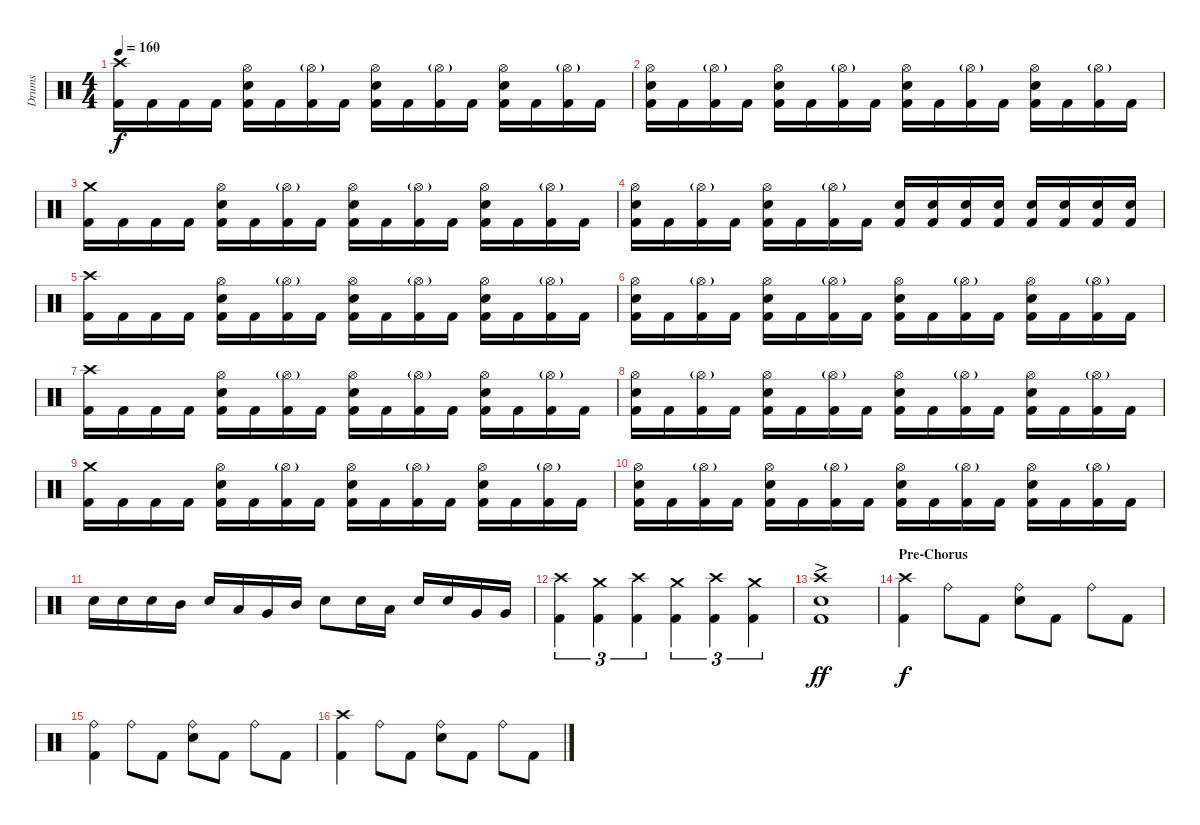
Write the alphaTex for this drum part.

\track ("Drums" "Drums") {instrument percussion}
\staff {score}
\articulation defaults
\ts (4 4)
\tempo 160
\clef neutral
\ks c
("Crash high (hit)" "Kick (hit) 2").16{dy f} "Kick (hit) 2".16 "Kick (hit) 2".16 "Kick (hit) 2".16 ("Hi-Hat (open)" "Snare (hit) 2" "Kick (hit) 2").16 "Kick (hit) 2".16 ("Hi-Hat (open)"{g} "Kick (hit) 2").16 "Kick (hit) 2".16 ("Hi-Hat (open)" "Snare (hit) 2" "Kick (hit) 2").16 "Kick (hit) 2".16 ("Hi-Hat (open)"{g} "Kick (hit) 2").16 "Kick (hit) 2".16 ("Hi-Hat (open)" "Snare (hit) 2" "Kick (hit) 2").16 "Kick (hit) 2".16 ("Hi-Hat (open)"{g} "Kick (hit) 2").16 "Kick (hit) 2".16 |
("Hi-Hat (open)" "Snare (hit) 2" "Kick (hit) 2").16 "Kick (hit) 2".16 ("Hi-Hat (open)"{g} "Kick (hit) 2").16 "Kick (hit) 2".16 ("Hi-Hat (open)" "Snare (hit) 2" "Kick (hit) 2").16 "Kick (hit) 2".16 ("Hi-Hat (open)"{g} "Kick (hit) 2").16 "Kick (hit) 2".16 ("Hi-Hat (open)" "Snare (hit) 2" "Kick (hit) 2").16 "Kick (hit) 2".16 ("Hi-Hat (open)"{g} "Kick (hit) 2").16 "Kick (hit) 2".16 ("Hi-Hat (open)" "Snare (hit) 2" "Kick (hit) 2").16 "Kick (hit) 2".16 ("Hi-Hat (open)"{g} "Kick (hit) 2").16 "Kick (hit) 2".16 |
("Crash medium (hit)" "Kick (hit) 2").16 "Kick (hit) 2".16 "Kick (hit) 2".16 "Kick (hit) 2".16 ("Hi-Hat (open)" "Snare (hit) 2" "Kick (hit) 2").16 "Kick (hit) 2".16 ("Hi-Hat (open)"{g} "Kick (hit) 2").16 "Kick (hit) 2".16 ("Hi-Hat (open)" "Snare (hit) 2" "Kick (hit) 2").16 "Kick (hit) 2".16 ("Hi-Hat (open)"{g} "Kick (hit) 2").16 "Kick (hit) 2".16 ("Hi-Hat (open)" "Snare (hit) 2" "Kick (hit) 2").16 "Kick (hit) 2".16 ("Hi-Hat (open)"{g} "Kick (hit) 2").16 "Kick (hit) 2".16 |
("Hi-Hat (open)" "Snare (hit) 2" "Kick (hit) 2").16 "Kick (hit) 2".16 ("Hi-Hat (open)"{g} "Kick (hit) 2").16 "Kick (hit) 2".16 ("Hi-Hat (open)" "Snare (hit) 2" "Kick (hit) 2").16 "Kick (hit) 2".16 ("Hi-Hat (open)"{g} "Kick (hit) 2").16 "Kick (hit) 2".16 ("Snare (hit) 2" "Kick (hit) 2").16 ("Snare (hit) 2" "Kick (hit) 2").16 ("Snare (hit) 2" "Kick (hit) 2").16 ("Snare (hit) 2" "Kick (hit) 2").16 ("Snare (hit) 2" "Kick (hit) 2").16 ("Snare (hit) 2" "Kick (hit) 2").16 ("Snare (hit) 2" "Kick (hit) 2").16 ("Snare (hit) 2" "Kick (hit) 2").16 |
("Crash high (hit)" "Kick (hit) 2").16 "Kick (hit) 2".16 "Kick (hit) 2".16 "Kick (hit) 2".16 ("Hi-Hat (open)" "Snare (hit) 2" "Kick (hit) 2").16 "Kick (hit) 2".16 ("Hi-Hat (open)"{g} "Kick (hit) 2").16 "Kick (hit) 2".16 ("Hi-Hat (open)" "Snare (hit) 2" "Kick (hit) 2").16 "Kick (hit) 2".16 ("Hi-Hat (open)"{g} "Kick (hit) 2").16 "Kick (hit) 2".16 ("Hi-Hat (open)" "Snare (hit) 2" "Kick (hit) 2").16 "Kick (hit) 2".16 ("Hi-Hat (open)"{g} "Kick (hit) 2").16 "Kick (hit) 2".16 |
("Hi-Hat (open)" "Snare (hit) 2" "Kick (hit) 2").16 "Kick (hit) 2".16 ("Hi-Hat (open)"{g} "Kick (hit) 2").16 "Kick (hit) 2".16 ("Hi-Hat (open)" "Snare (hit) 2" "Kick (hit) 2").16 "Kick (hit) 2".16 ("Hi-Hat (open)"{g} "Kick (hit) 2").16 "Kick (hit) 2".16 ("Hi-Hat (open)" "Snare (hit) 2" "Kick (hit) 2").16 "Kick (hit) 2".16 ("Hi-Hat (open)"{g} "Kick (hit) 2").16 "Kick (hit) 2".16 ("Hi-Hat (open)" "Snare (hit) 2" "Kick (hit) 2").16 "Kick (hit) 2".16 ("Hi-Hat (open)"{g} "Kick (hit) 2").16 "Kick (hit) 2".16 |
("Crash high (hit)" "Kick (hit) 2").16 "Kick (hit) 2".16 "Kick (hit) 2".16 "Kick (hit) 2".16 ("Hi-Hat (open)" "Snare (hit) 2" "Kick (hit) 2").16 "Kick (hit) 2".16 ("Hi-Hat (open)"{g} "Kick (hit) 2").16 "Kick (hit) 2".16 ("Hi-Hat (open)" "Snare (hit) 2" "Kick (hit) 2").16 "Kick (hit) 2".16 ("Hi-Hat (open)"{g} "Kick (hit) 2").16 "Kick (hit) 2".16 ("Hi-Hat (open)" "Snare (hit) 2" "Kick (hit) 2").16 "Kick (hit) 2".16 ("Hi-Hat (open)"{g} "Kick (hit) 2").16 "Kick (hit) 2".16 |
("Hi-Hat (open)" "Snare (hit) 2" "Kick (hit) 2").16 "Kick (hit) 2".16 ("Hi-Hat (open)"{g} "Kick (hit) 2").16 "Kick (hit) 2".16 ("Hi-Hat (open)" "Snare (hit) 2" "Kick (hit) 2").16 "Kick (hit) 2".16 ("Hi-Hat (open)"{g} "Kick (hit) 2").16 "Kick (hit) 2".16 ("Hi-Hat (open)" "Snare (hit) 2" "Kick (hit) 2").16 "Kick (hit) 2".16 ("Hi-Hat (open)"{g} "Kick (hit) 2").16 "Kick (hit) 2".16 ("Hi-Hat (open)" "Snare (hit) 2" "Kick (hit) 2").16 "Kick (hit) 2".16 ("Hi-Hat (open)"{g} "Kick (hit) 2").16 "Kick (hit) 2".16 |
("Crash medium (hit)" "Kick (hit) 2").16 "Kick (hit) 2".16 "Kick (hit) 2".16 "Kick (hit) 2".16 ("Hi-Hat (open)" "Snare (hit) 2" "Kick (hit) 2").16 "Kick (hit) 2".16 ("Hi-Hat (open)"{g} "Kick (hit) 2").16 "Kick (hit) 2".16 ("Hi-Hat (open)" "Snare (hit) 2" "Kick (hit) 2").16 "Kick (hit) 2".16 ("Hi-Hat (open)"{g} "Kick (hit) 2").16 "Kick (hit) 2".16 ("Hi-Hat (open)" "Snare (hit) 2" "Kick (hit) 2").16 "Kick (hit) 2".16 ("Hi-Hat (open)"{g} "Kick (hit) 2").16 "Kick (hit) 2".16 |
("Hi-Hat (open)" "Snare (hit) 2" "Kick (hit) 2").16 "Kick (hit) 2".16 ("Hi-Hat (open)"{g} "Kick (hit) 2").16 "Kick (hit) 2".16 ("Hi-Hat (open)" "Snare (hit) 2" "Kick (hit) 2").16 "Kick (hit) 2".16 ("Hi-Hat (open)"{g} "Kick (hit) 2").16 "Kick (hit) 2".16 ("Hi-Hat (open)" "Snare (hit) 2" "Kick (hit) 2").16 "Kick (hit) 2".16 ("Hi-Hat (open)"{g} "Kick (hit) 2").16 "Kick (hit) 2".16 ("Hi-Hat (open)" "Snare (hit) 2" "Kick (hit) 2").16 "Kick (hit) 2".16 ("Hi-Hat (open)"{g} "Kick (hit) 2").16 "Kick (hit) 2".16 |
"Snare (hit) 2".16 "Snare (hit) 2".16 "Snare (hit) 2".16 "Mid Tom (hit)".16 "Snare (hit) 2".16 "Low Tom (hit)".16 "Very Low Tom (hit)".16 "Mid Tom (hit)".16 "Snare (hit) 2".8 "Snare (hit) 2".16 "Low Tom (hit)".16 "Snare (hit) 2".16 "Snare (hit) 2".16 "Very Low Tom (hit)".16 "Very Low Tom (hit)".16 |
("Crash high (hit)" "Kick (hit) 2").4{tu (3 2)} ("Crash medium (hit)" "Kick (hit) 2").4{tu (3 2)} ("Crash high (hit)" "Kick (hit) 2").4{tu (3 2)} ("Crash medium (hit)" "Kick (hit) 2").4{tu (3 2)} ("Crash high (hit)" "Kick (hit) 2").4{tu (3 2)} ("Crash medium (hit)" "Kick (hit) 2").4{tu (3 2)} |
("Snare (hit) 2"{ac} "Crash high (hit)" "Kick (hit) 2").1{dy ff} |
\section ("" "Pre-Chorus")
("Crash high (hit)" "Kick (hit) 2").4{dy f} "Ride (bell)".8 "Kick (hit) 2".8 ("Ride (bell)" "Snare (hit) 2").8 "Kick (hit) 2".8 "Ride (bell)".8 "Kick (hit) 2".8 |
("Ride (bell)" "Kick (hit) 2").4 "Ride (bell)".8 "Kick (hit) 2".8 ("Ride (bell)" "Snare (hit) 2").8 "Kick (hit) 2".8 "Ride (bell)".8 "Kick (hit) 2".8 |
("Crash high (hit)" "Kick (hit) 2").4 "Ride (bell)".8 "Kick (hit) 2".8 ("Ride (bell)" "Snare (hit) 2").8 "Kick (hit) 2".8 "Ride (bell)".8 "Kick (hit) 2".8
